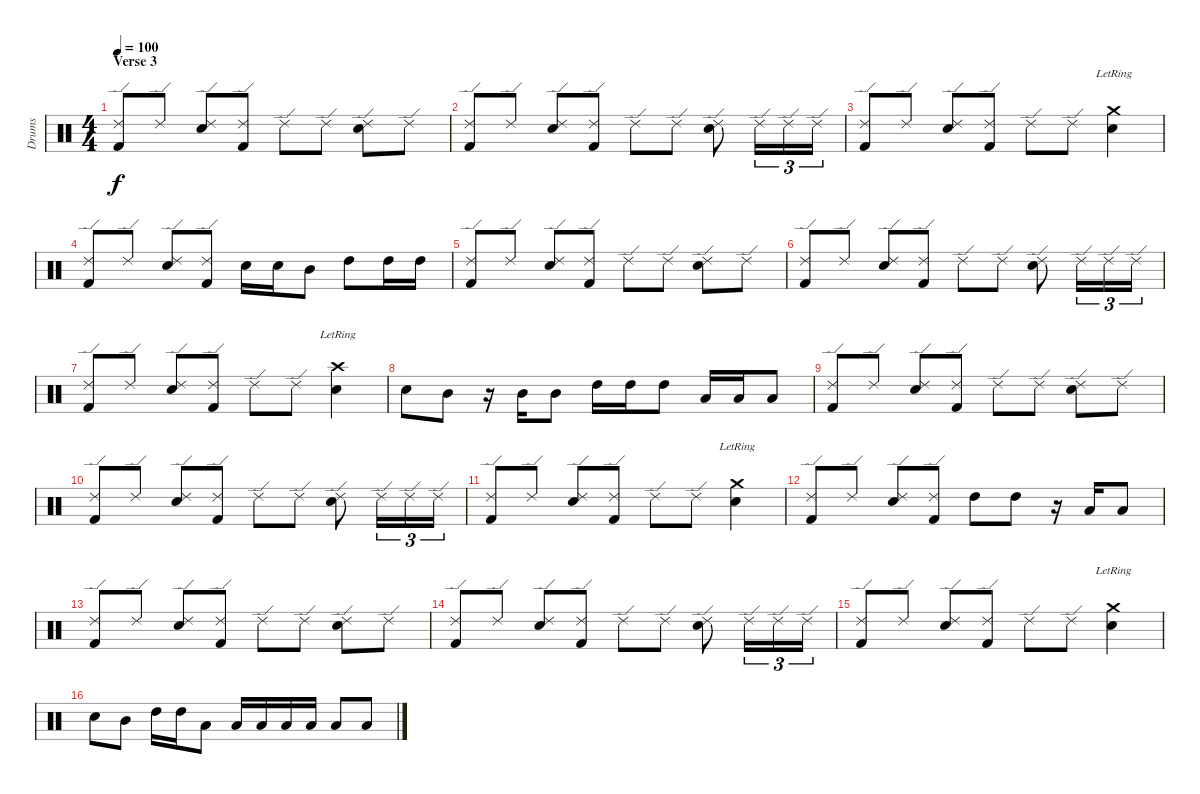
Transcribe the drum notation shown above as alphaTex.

\track ("Drums" "Drums") {instrument percussion}
\staff {score}
\articulation defaults
\ts (4 4)
\section ("" "Verse 3")
\tempo 100
\clef neutral
\ks c
("Ride (edge) 2" "Kick (hit) 2").8{dy f} "Ride (edge) 2".8 ("Ride (edge) 2" "Snare (hit) 2").8 ("Ride (edge) 2" "Kick (hit) 2").8 "Ride (edge) 2".8 "Ride (edge) 2".8 ("Ride (edge) 2" "Snare (hit) 2").8 "Ride (edge) 2".8 |
("Ride (edge) 2" "Kick (hit) 2").8 "Ride (edge) 2".8 ("Ride (edge) 2" "Snare (hit) 2").8 ("Ride (edge) 2" "Kick (hit) 2").8 "Ride (edge) 2".8 "Ride (edge) 2".8 ("Ride (edge) 2" "Snare (hit) 2").8 "Ride (edge) 2".16{tu (3 2)} "Ride (edge) 2".16{tu (3 2)} "Ride (edge) 2".16{tu (3 2)} |
("Ride (edge) 2" "Kick (hit) 2").8 "Ride (edge) 2".8 ("Ride (edge) 2" "Snare (hit) 2").8 ("Ride (edge) 2" "Kick (hit) 2").8 "Ride (edge) 2".8 "Ride (edge) 2".8 ("Crash medium (hit)"{lr} "Snare (hit) 2").4 |
("Ride (edge) 2" "Kick (hit) 2").8 "Ride (edge) 2".8 ("Ride (edge) 2" "Snare (hit) 2").8 ("Ride (edge) 2" "Kick (hit) 2").8 "Snare (hit) 2".16 "Snare (hit) 2".16 "Mid Tom (hit)".8 "High Tom (hit)".8 "High Tom (hit)".16 "High Tom (hit)".16 |
("Ride (edge) 2" "Kick (hit) 2").8 "Ride (edge) 2".8 ("Ride (edge) 2" "Snare (hit) 2").8 ("Ride (edge) 2" "Kick (hit) 2").8 "Ride (edge) 2".8 "Ride (edge) 2".8 ("Ride (edge) 2" "Snare (hit) 2").8 "Ride (edge) 2".8 |
("Ride (edge) 2" "Kick (hit) 2").8 "Ride (edge) 2".8 ("Ride (edge) 2" "Snare (hit) 2").8 ("Ride (edge) 2" "Kick (hit) 2").8 "Ride (edge) 2".8 "Ride (edge) 2".8 ("Ride (edge) 2" "Snare (hit) 2").8 "Ride (edge) 2".16{tu (3 2)} "Ride (edge) 2".16{tu (3 2)} "Ride (edge) 2".16{tu (3 2)} |
("Ride (edge) 2" "Kick (hit) 2").8 "Ride (edge) 2".8 ("Ride (edge) 2" "Snare (hit) 2").8 ("Ride (edge) 2" "Kick (hit) 2").8 "Ride (edge) 2".8 "Ride (edge) 2".8 ("Crash high (hit)"{lr} "Snare (hit) 2").4 |
"Snare (hit) 2".8 "Mid Tom (hit)".8 r.16 "Mid Tom (hit)".16 "Mid Tom (hit)".8 "High Tom (hit)".16 "High Tom (hit)".16 "High Tom (hit)".8 "Low Tom (hit)".16 "Low Tom (hit)".16 "Low Tom (hit)".8 |
("Ride (edge) 2" "Kick (hit) 2").8 "Ride (edge) 2".8 ("Ride (edge) 2" "Snare (hit) 2").8 ("Ride (edge) 2" "Kick (hit) 2").8 "Ride (edge) 2".8 "Ride (edge) 2".8 ("Ride (edge) 2" "Snare (hit) 2").8 "Ride (edge) 2".8 |
("Ride (edge) 2" "Kick (hit) 2").8 "Ride (edge) 2".8 ("Ride (edge) 2" "Snare (hit) 2").8 ("Ride (edge) 2" "Kick (hit) 2").8 "Ride (edge) 2".8 "Ride (edge) 2".8 ("Ride (edge) 2" "Snare (hit) 2").8 "Ride (edge) 2".16{tu (3 2)} "Ride (edge) 2".16{tu (3 2)} "Ride (edge) 2".16{tu (3 2)} |
("Ride (edge) 2" "Kick (hit) 2").8 "Ride (edge) 2".8 ("Ride (edge) 2" "Snare (hit) 2").8 ("Ride (edge) 2" "Kick (hit) 2").8 "Ride (edge) 2".8 "Ride (edge) 2".8 ("Crash medium (hit)"{lr} "Snare (hit) 2").4 |
("Ride (edge) 2" "Kick (hit) 2").8 "Ride (edge) 2".8 ("Ride (edge) 2" "Snare (hit) 2").8 ("Ride (edge) 2" "Kick (hit) 2").8 "High Tom (hit)".8 "High Tom (hit)".8 r.16 "Low Tom (hit)".16 "Low Tom (hit)".8 |
("Ride (edge) 2" "Kick (hit) 2").8 "Ride (edge) 2".8 ("Ride (edge) 2" "Snare (hit) 2").8 ("Ride (edge) 2" "Kick (hit) 2").8 "Ride (edge) 2".8 "Ride (edge) 2".8 ("Ride (edge) 2" "Snare (hit) 2").8 "Ride (edge) 2".8 |
("Ride (edge) 2" "Kick (hit) 2").8 "Ride (edge) 2".8 ("Ride (edge) 2" "Snare (hit) 2").8 ("Ride (edge) 2" "Kick (hit) 2").8 "Ride (edge) 2".8 "Ride (edge) 2".8 ("Ride (edge) 2" "Snare (hit) 2").8 "Ride (edge) 2".16{tu (3 2)} "Ride (edge) 2".16{tu (3 2)} "Ride (edge) 2".16{tu (3 2)} |
("Ride (edge) 2" "Kick (hit) 2").8 "Ride (edge) 2".8 ("Ride (edge) 2" "Snare (hit) 2").8 ("Ride (edge) 2" "Kick (hit) 2").8 "Ride (edge) 2".8 "Ride (edge) 2".8 ("Crash medium (hit)"{lr} "Snare (hit) 2").4 |
"Snare (hit) 2".8 "Mid Tom (hit)".8 "High Tom (hit)".16 "High Tom (hit)".16 "Low Tom (hit)".8 "Low Tom (hit)".16 "Low Tom (hit)".16 "Low Tom (hit)".16 "Low Tom (hit)".16 "Low Tom (hit)".8 "Low Tom (hit)".8
